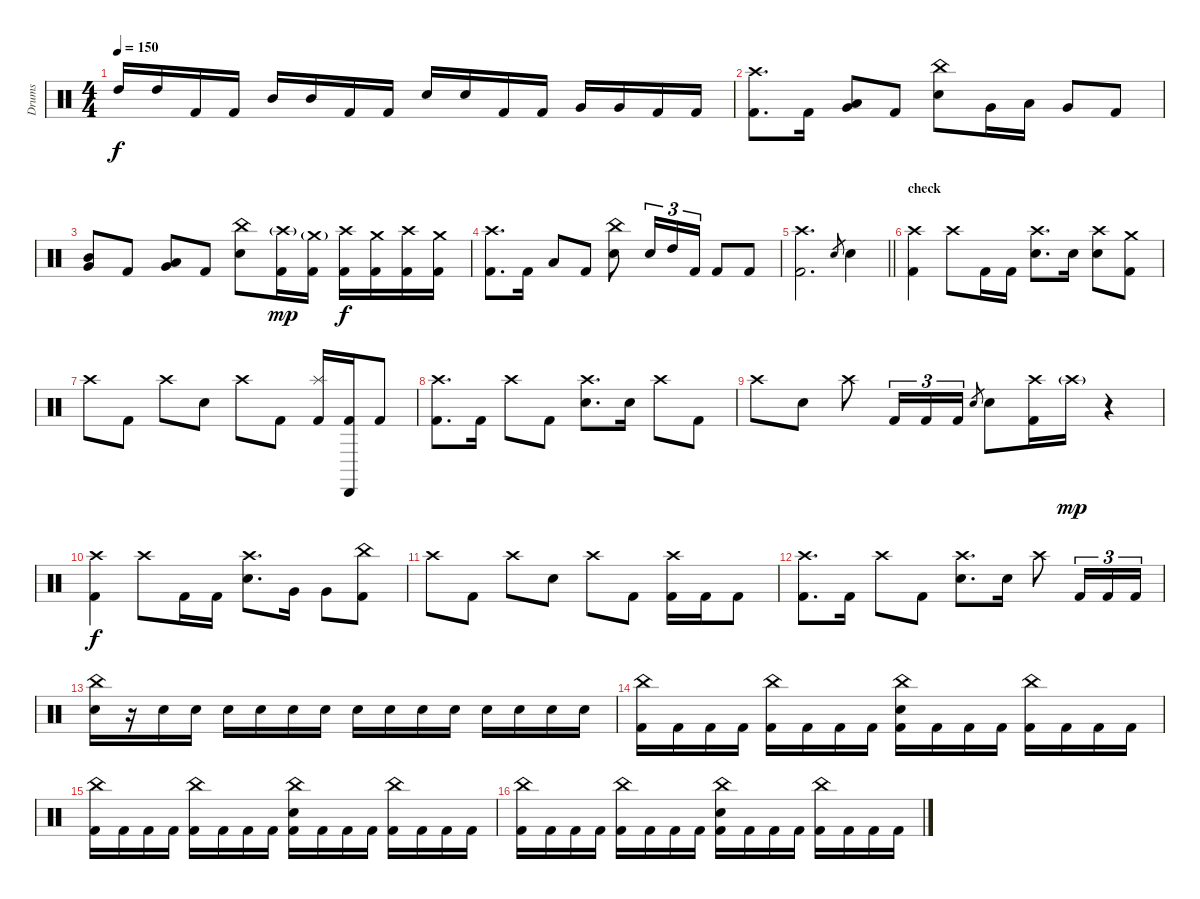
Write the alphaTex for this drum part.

\track ("Drums" "Drums") {instrument percussion}
\staff {score}
\articulation defaults
\ts (4 4)
\tempo 150
\clef neutral
\ks c "High Tom (hit)".16{dy f} "High Tom (hit)".16 "Kick (hit) 2".16 "Kick (hit) 2".16 "Mid Tom (hit)".16 "Mid Tom (hit)".16 "Kick (hit) 2".16 "Kick (hit) 2".16 "Snare (hit) 2".16 "Snare (hit) 2".16 "Kick (hit) 2".16 "Kick (hit) 2".16 "Very Low Tom (hit)".16 "Very Low Tom (hit)".16 "Kick (hit) 2".16 "Kick (hit) 2".16
|
("Crash high (hit)" "Kick (hit) 2").8{d} "Kick (hit) 2".16 ("Low Tom (hit)" "Very Low Tom (hit)").8 "Kick (hit) 2".8 ("China (hit)" "Snare (hit) 2").8 "Very Low Tom (hit)".16 "Low Tom (hit)".16 "Very Low Tom (hit)".8 "Kick (hit) 2".8 |
("Mid Tom (hit)" "Very Low Tom (hit)").8 "Kick (hit) 2".8 ("Low Tom (hit)" "Very Low Tom (hit)").8 "Kick (hit) 2".8 ("China (hit)" "Snare (hit) 2").8 ("Crash high (hit)"{g} "Kick (hit) 2").16{dy mp} ("Crash medium (hit)"{g} "Kick (hit) 2").16 ("Crash high (hit)" "Kick (hit) 2").16{dy f} ("Crash medium (hit)" "Kick (hit) 2").16 ("Crash high (hit)" "Kick (hit) 2").16 ("Crash medium (hit)" "Kick (hit) 2").16 |
("Crash high (hit)" "Kick (hit) 2").8{d} "Kick (hit) 2".16 "Low Tom (hit)".8 "Kick (hit) 2".8 ("China (hit)" "Snare (hit) 2").8 "Snare (hit) 2".16{tu (3 2)} "High Tom (hit)".16{tu (3 2)} "Kick (hit) 2".16{tu (3 2)} "Kick (hit) 2".8 "Kick (hit) 2".8 |
\barLineRight lightlight
("Crash high (hit)" "Kick (hit) 2").2{d} "Snare (hit) 2".8{gr} "Snare (hit) 2".4 |
\section ("" "check")
("Crash high (hit)" "Kick (hit) 2").4 "Crash high (hit)".8 "Kick (hit) 2".16 "Kick (hit) 2".16 ("Crash high (hit)" "Snare (hit) 2").8{d} "Snare (hit) 2".16 ("Crash high (hit)" "Snare (hit) 2").8 ("Crash medium (hit)" "Kick (hit) 2").8 |
"Crash high (hit)".8 "Kick (hit) 2".8 "Crash high (hit)".8 "Snare (hit) 2".8 "Crash high (hit)".8 "Kick (hit) 2".8 ("Splash (hit)" "Kick (hit) 2").16 ("Cabasa (hit)" "Kick (hit) 2").16 "Kick (hit) 2".8 |
("Crash high (hit)" "Kick (hit) 2").8{d} "Kick (hit) 2".16 "Crash high (hit)".8 "Kick (hit) 2".8 ("Crash high (hit)" "Snare (hit) 2").8{d} "Snare (hit) 2".16 "Crash high (hit)".8 "Kick (hit) 2".8 |
"Crash high (hit)".8 "Snare (hit) 2".8 "Crash high (hit)".8 "Kick (hit) 2".16{tu (3 2)} "Kick (hit) 2".16{tu (3 2)} "Kick (hit) 2".16{tu (3 2)} "Snare (hit) 2".8{gr} "Snare (hit) 2".8 ("Crash high (hit)" "Kick (hit) 2").16 "Crash high (hit)"{g}.16{dy mp} r.4 |
("Crash high (hit)" "Kick (hit) 2").4{dy f} "Crash high (hit)".8 "Kick (hit) 2".16 "Kick (hit) 2".16 ("Crash high (hit)" "Snare (hit) 2").8{d} "Very Low Tom (hit)".16 "Very Low Tom (hit)".8 ("China (hit)" "Kick (hit) 2").8 |
"Crash high (hit)".8 "Kick (hit) 2".8 "Crash high (hit)".8 "Snare (hit) 2".8 "Crash high (hit)".8 "Kick (hit) 2".8 ("Crash high (hit)" "Kick (hit) 2").16 "Kick (hit) 2".16 "Kick (hit) 2".8 |
("Crash high (hit)" "Kick (hit) 2").8{d} "Kick (hit) 2".16 "Crash high (hit)".8 "Kick (hit) 2".8 ("Crash high (hit)" "Snare (hit) 2").8{d} "Snare (hit) 2".16 "Crash high (hit)".8 "Kick (hit) 2".16{tu (3 2)} "Kick (hit) 2".16{tu (3 2)} "Kick (hit) 2".16{tu (3 2)} |
("China (hit)" "Snare (hit) 2").16 r.16{volume 7} "Snare (hit) 2".16{volume 14} "Snare (hit) 2".16 "Snare (hit) 2".16 "Snare (hit) 2".16 "Snare (hit) 2".16 "Snare (hit) 2".16 "Snare (hit) 2".16 "Snare (hit) 2".16 "Snare (hit) 2".16 "Snare (hit) 2".16 "Snare (hit) 2".16 "Snare (hit) 2".16 "Snare (hit) 2".16 "Snare (hit) 2".16 |
("China (hit)" "Kick (hit) 2").16 "Kick (hit) 2".16 "Kick (hit) 2".16 "Kick (hit) 2".16 ("China (hit)" "Kick (hit) 2").16 "Kick (hit) 2".16 "Kick (hit) 2".16 "Kick (hit) 2".16 ("China (hit)" "Snare (hit) 2" "Kick (hit) 2").16 "Kick (hit) 2".16 "Kick (hit) 2".16 "Kick (hit) 2".16 ("China (hit)" "Kick (hit) 2").16 "Kick (hit) 2".16 "Kick (hit) 2".16 "Kick (hit) 2".16 |
("China (hit)" "Kick (hit) 2").16 "Kick (hit) 2".16 "Kick (hit) 2".16 "Kick (hit) 2".16 ("China (hit)" "Kick (hit) 2").16 "Kick (hit) 2".16 "Kick (hit) 2".16 "Kick (hit) 2".16 ("China (hit)" "Snare (hit) 2" "Kick (hit) 2").16 "Kick (hit) 2".16 "Kick (hit) 2".16 "Kick (hit) 2".16 ("China (hit)" "Kick (hit) 2").16 "Kick (hit) 2".16 "Kick (hit) 2".16 "Kick (hit) 2".16 |
("China (hit)" "Kick (hit) 2").16 "Kick (hit) 2".16 "Kick (hit) 2".16 "Kick (hit) 2".16 ("China (hit)" "Kick (hit) 2").16 "Kick (hit) 2".16 "Kick (hit) 2".16 "Kick (hit) 2".16 ("China (hit)" "Snare (hit) 2" "Kick (hit) 2").16 "Kick (hit) 2".16 "Kick (hit) 2".16 "Kick (hit) 2".16 ("China (hit)" "Kick (hit) 2").16 "Kick (hit) 2".16 "Kick (hit) 2".16 "Kick (hit) 2".16
